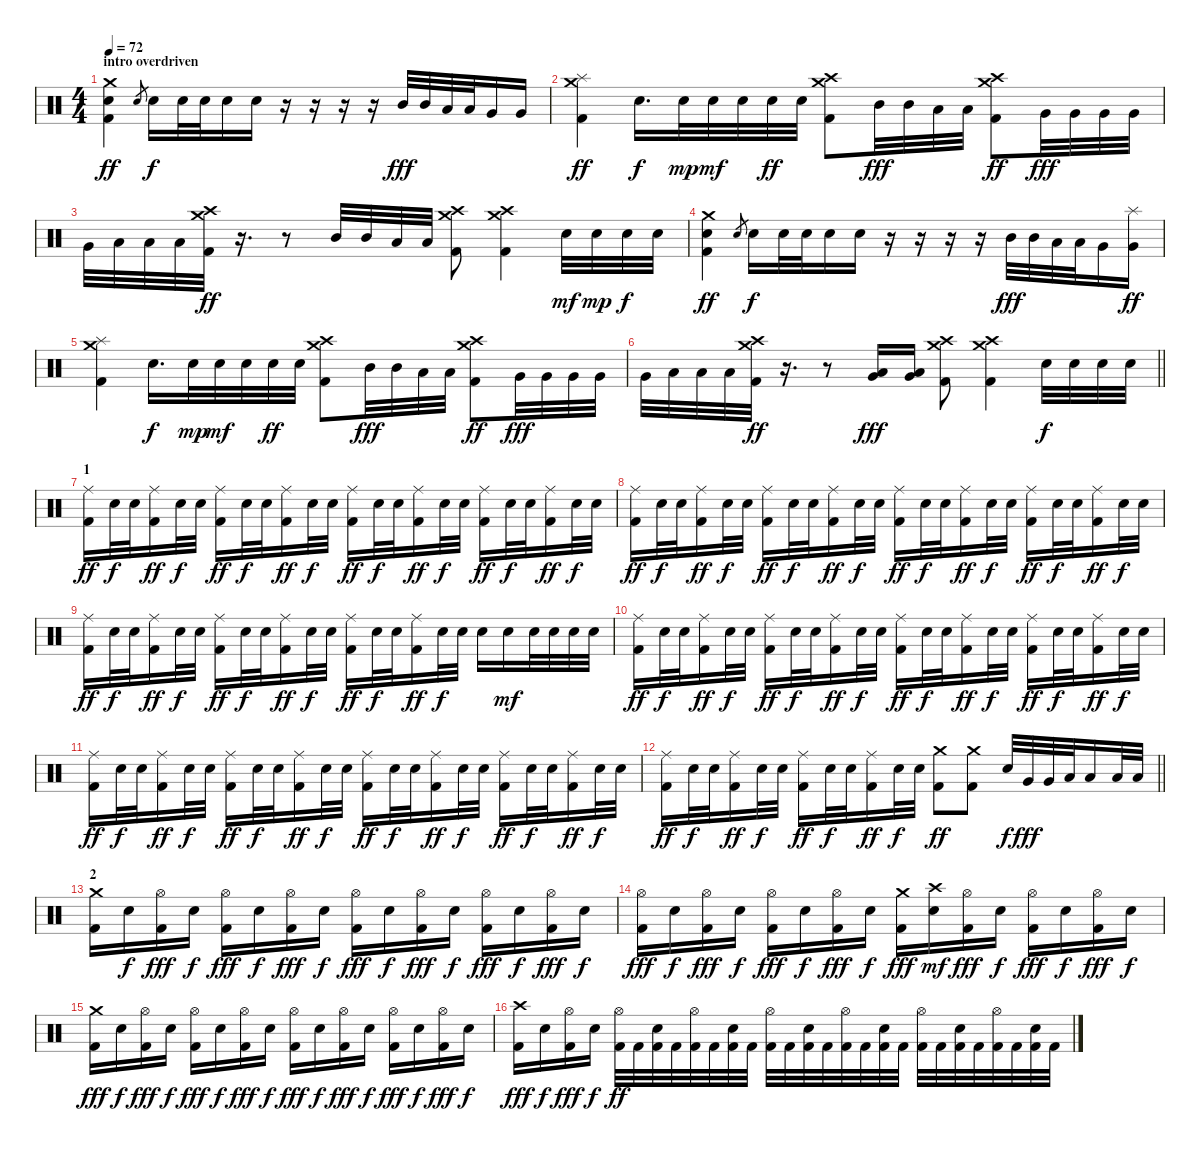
\track "" {instrument percussion}
\staff {score}
\articulation defaults
\ts (4 4)
\section ("" "intro overdriven")
\tempo 72
\clef neutral
\ks c
("Crash medium (hit)" "Snare (hit) 2" "Kick (hit) 2").4{dy ff} "Snare (hit) 2".8{gr} "Snare (hit) 2".16{dy f} "Snare (hit) 2".32 "Snare (hit) 2".32 "Snare (hit) 2".16 "Snare (hit) 2".16 r.16 r.16 r.16 r.16 "Mid Tom (hit)".32{dy fff} "Mid Tom (hit)".32 "Low Tom (hit)".32 "Low Tom (hit)".32 "Very Low Tom (hit)".16 "Very Low Tom (hit)".16 |
("Splash (hit)" "Crash medium (hit)" "Kick (hit) 2").4{dy ff} "Snare (hit) 2".16{d dy f} "Snare (hit) 2".32{dy mp} "Snare (hit) 2".32{dy mf} "Snare (hit) 2".32 "Snare (hit) 2".32{dy ff} "Snare (hit) 2".32 ("Crash medium (hit)" "Crash high (hit)" "Kick (hit) 2").8 "Mid Tom (hit)".32{dy fff} "Mid Tom (hit)".32 "Low Tom (hit)".32 "Low Tom (hit)".32 ("Crash medium (hit)" "Crash high (hit)" "Kick (hit) 2").8{dy ff} "Very Low Tom (hit)".32{dy fff} "Very Low Tom (hit)".32 "Very Low Tom (hit)".32 "Very Low Tom (hit)".32 |
"Very Low Tom (hit)".32 "Low Tom (hit)".32 "Low Tom (hit)".32 "Low Tom (hit)".32 ("Crash medium (hit)" "Crash high (hit)" "Kick (hit) 2").32{dy ff} r.16{d} r.8 "Mid Tom (hit)".32 "Mid Tom (hit)".32 "Low Tom (hit)".32 "Low Tom (hit)".32 ("Crash medium (hit)" "Crash high (hit)" "Kick (hit) 2").8 ("Crash medium (hit)" "Crash high (hit)" "Kick (hit) 2").4 "Snare (hit) 2".32{dy mf} "Snare (hit) 2".32{dy mp} "Snare (hit) 2".32{dy f} "Snare (hit) 2".32 |
("Crash medium (hit)" "Electric Snare (hit)" "Kick (hit) 2").4{dy ff} "Snare (hit) 2".8{gr} "Snare (hit) 2".16{dy f} "Snare (hit) 2".32 "Snare (hit) 2".32 "Snare (hit) 2".16 "Snare (hit) 2".16 r.16 r.16 r.16 r.16 "Mid Tom (hit)".32{dy fff} "Mid Tom (hit)".32 "Low Tom (hit)".32 "Low Tom (hit)".32 "Very Low Tom (hit)".16 ("Splash (hit)" "Very Low Tom (hit)").16{dy ff} |
("Splash (hit)" "Crash medium (hit)" "Kick (hit) 2").4 "Snare (hit) 2".16{d dy f} "Snare (hit) 2".32{dy mp} "Snare (hit) 2".32{dy mf} "Snare (hit) 2".32 "Snare (hit) 2".32{dy ff} "Snare (hit) 2".32 ("Crash medium (hit)" "Crash high (hit)" "Kick (hit) 2").8 "Mid Tom (hit)".32{dy fff} "Mid Tom (hit)".32 "Low Tom (hit)".32 "Low Tom (hit)".32 ("Crash medium (hit)" "Crash high (hit)" "Kick (hit) 2").8{dy ff} "Very Low Tom (hit)".32{dy fff} "Very Low Tom (hit)".32 "Very Low Tom (hit)".32 "Very Low Tom (hit)".32 |
\barLineRight lightlight "Very Low Tom (hit)".32 "Low Tom (hit)".32 "Low Tom (hit)".32 "Low Tom (hit)".32
("Crash medium (hit)" "Crash high (hit)" "Kick (hit) 2").32{dy ff} r.16{d} r.8 ("Very Low Tom (hit)" "Low Floor Tom (hit)").16{dy fff} ("Very Low Tom (hit)" "Low Floor Tom (hit)").16 ("Crash medium (hit)" "Crash high (hit)" "Kick (hit) 2").8 ("Crash medium (hit)" "Crash high (hit)" "Kick (hit) 2").4 "Snare (hit) 2".32{dy f} "Snare (hit) 2".32 "Snare (hit) 2".32 "Snare (hit) 2".32 |
\section ("" "1")
("Ride (middle)" "Kick (hit) 2").16{dy ff} "Snare (hit) 2".32{dy f} "Snare (hit) 2".32 ("Ride (middle)" "Kick (hit) 2").16{dy ff} "Snare (hit) 2".32{dy f} "Snare (hit) 2".32 ("Ride (middle)" "Kick (hit) 2").16{dy ff} "Snare (hit) 2".32{dy f} "Snare (hit) 2".32 ("Ride (middle)" "Kick (hit) 2").16{dy ff} "Snare (hit) 2".32{dy f} "Snare (hit) 2".32 ("Ride (middle)" "Kick (hit) 2").16{dy ff} "Snare (hit) 2".32{dy f} "Snare (hit) 2".32 ("Ride (middle)" "Kick (hit) 2").16{dy ff} "Snare (hit) 2".32{dy f} "Snare (hit) 2".32 ("Ride (middle)" "Kick (hit) 2").16{dy ff} "Snare (hit) 2".32{dy f} "Snare (hit) 2".32 ("Ride (middle)" "Kick (hit) 2").16{dy ff} "Snare (hit) 2".32{dy f} "Snare (hit) 2".32 |
("Ride (middle)" "Kick (hit) 2").16{dy ff} "Snare (hit) 2".32{dy f} "Snare (hit) 2".32 ("Ride (middle)" "Kick (hit) 2").16{dy ff} "Snare (hit) 2".32{dy f} "Snare (hit) 2".32 ("Ride (middle)" "Kick (hit) 2").16{dy ff} "Snare (hit) 2".32{dy f} "Snare (hit) 2".32 ("Ride (middle)" "Kick (hit) 2").16{dy ff} "Snare (hit) 2".32{dy f} "Snare (hit) 2".32 ("Ride (middle)" "Kick (hit) 2").16{dy ff} "Snare (hit) 2".32{dy f} "Snare (hit) 2".32 ("Ride (middle)" "Kick (hit) 2").16{dy ff} "Snare (hit) 2".32{dy f} "Snare (hit) 2".32 ("Ride (middle)" "Kick (hit) 2").16{dy ff} "Snare (hit) 2".32{dy f} "Snare (hit) 2".32 ("Ride (middle)" "Kick (hit) 2").16{dy ff} "Snare (hit) 2".32{dy f} "Snare (hit) 2".32 |
("Ride (middle)" "Kick (hit) 2").16{dy ff} "Snare (hit) 2".32{dy f} "Snare (hit) 2".32 ("Ride (middle)" "Kick (hit) 2").16{dy ff} "Snare (hit) 2".32{dy f} "Snare (hit) 2".32 ("Ride (middle)" "Kick (hit) 2").16{dy ff} "Snare (hit) 2".32{dy f} "Snare (hit) 2".32 ("Ride (middle)" "Kick (hit) 2").16{dy ff} "Snare (hit) 2".32{dy f} "Snare (hit) 2".32 ("Ride (middle)" "Kick (hit) 2").16{dy ff} "Snare (hit) 2".32{dy f} "Snare (hit) 2".32 ("Ride (middle)" "Kick (hit) 2").16{dy ff} "Snare (hit) 2".32{dy f} "Snare (hit) 2".32 "Snare (hit) 2".16 "Snare (hit) 2".16{dy mf} "Snare (hit) 2".32 "Snare (hit) 2".32 "Snare (hit) 2".32 "Snare (hit) 2".32 |
("Ride (middle)" "Kick (hit) 2").16{dy ff} "Snare (hit) 2".32{dy f} "Snare (hit) 2".32 ("Ride (middle)" "Kick (hit) 2").16{dy ff} "Snare (hit) 2".32{dy f} "Snare (hit) 2".32 ("Ride (middle)" "Kick (hit) 2").16{dy ff} "Snare (hit) 2".32{dy f} "Snare (hit) 2".32 ("Ride (middle)" "Kick (hit) 2").16{dy ff} "Snare (hit) 2".32{dy f} "Snare (hit) 2".32 ("Ride (middle)" "Kick (hit) 2").16{dy ff} "Snare (hit) 2".32{dy f} "Snare (hit) 2".32 ("Ride (middle)" "Kick (hit) 2").16{dy ff} "Snare (hit) 2".32{dy f} "Snare (hit) 2".32 ("Ride (middle)" "Kick (hit) 2").16{dy ff} "Snare (hit) 2".32{dy f} "Snare (hit) 2".32 ("Ride (middle)" "Kick (hit) 2").16{dy ff} "Snare (hit) 2".32{dy f} "Snare (hit) 2".32 |
("Ride (middle)" "Kick (hit) 2").16{dy ff} "Snare (hit) 2".32{dy f} "Snare (hit) 2".32 ("Ride (middle)" "Kick (hit) 2").16{dy ff} "Snare (hit) 2".32{dy f} "Snare (hit) 2".32 ("Ride (middle)" "Kick (hit) 2").16{dy ff} "Snare (hit) 2".32{dy f} "Snare (hit) 2".32 ("Ride (middle)" "Kick (hit) 2").16{dy ff} "Snare (hit) 2".32{dy f} "Snare (hit) 2".32 ("Ride (middle)" "Kick (hit) 2").16{dy ff} "Snare (hit) 2".32{dy f} "Snare (hit) 2".32 ("Ride (middle)" "Kick (hit) 2").16{dy ff} "Snare (hit) 2".32{dy f} "Snare (hit) 2".32 ("Ride (middle)" "Kick (hit) 2").16{dy ff} "Snare (hit) 2".32{dy f} "Snare (hit) 2".32 ("Ride (middle)" "Kick (hit) 2").16{dy ff} "Snare (hit) 2".32{dy f} "Snare (hit) 2".32 |
\barLineRight lightlight
("Ride (middle)" "Kick (hit) 2").16{dy ff} "Snare (hit) 2".32{dy f} "Snare (hit) 2".32 ("Ride (middle)" "Kick (hit) 2").16{dy ff} "Snare (hit) 2".32{dy f} "Snare (hit) 2".32 ("Ride (middle)" "Kick (hit) 2").16{dy ff} "Snare (hit) 2".32{dy f} "Snare (hit) 2".32 ("Ride (middle)" "Kick (hit) 2").16{dy ff} "Snare (hit) 2".32{dy f} "Snare (hit) 2".32 ("Crash medium (hit)" "Kick (hit) 2").8{dy ff} ("Crash medium (hit)" "Kick (hit) 2").8 "Snare (hit) 2".32{dy f} "Very Low Tom (hit)".32{dy fff} "Very Low Tom (hit)".32 "Low Floor Tom (hit)".32 "Low Tom (hit)".16 "Low Tom (hit)".32 "Low Tom (hit)".32 |
\section ("" "2")
("Crash medium (hit)" "Kick (hit) 2").16 "Snare (hit) 2".16{dy f} ("Hi-Hat (open)" "Kick (hit) 2").16{dy fff} "Snare (hit) 2".16{dy f} ("Hi-Hat (open)" "Kick (hit) 2").16{dy fff} "Snare (hit) 2".16{dy f} ("Hi-Hat (open)" "Kick (hit) 2").16{dy fff} "Snare (hit) 2".16{dy f} ("Hi-Hat (open)" "Kick (hit) 2").16{dy fff} "Snare (hit) 2".16{dy f} ("Hi-Hat (open)" "Kick (hit) 2").16{dy fff} "Snare (hit) 2".16{dy f} ("Hi-Hat (open)" "Kick (hit) 2").16{dy fff} "Snare (hit) 2".16{dy f} ("Hi-Hat (open)" "Kick (hit) 2").16{dy fff} "Snare (hit) 2".16{dy f} |
("Hi-Hat (open)" "Kick (hit) 2").16{dy fff} "Snare (hit) 2".16{dy f} ("Hi-Hat (open)" "Kick (hit) 2").16{dy fff} "Snare (hit) 2".16{dy f} ("Hi-Hat (open)" "Kick (hit) 2").16{dy fff} "Snare (hit) 2".16{dy f} ("Hi-Hat (open)" "Kick (hit) 2").16{dy fff} "Snare (hit) 2".16{dy f} ("Crash medium (hit)" "Kick (hit) 2").16{dy fff} ("Crash high (hit)" "Snare (hit) 2").16{dy mf} ("Hi-Hat (open)" "Kick (hit) 2").16{dy fff} "Snare (hit) 2".16{dy f} ("Hi-Hat (open)" "Kick (hit) 2").16{dy fff} "Snare (hit) 2".16{dy f} ("Hi-Hat (open)" "Kick (hit) 2").16{dy fff} "Snare (hit) 2".16{dy f} |
("Crash medium (hit)" "Kick (hit) 2").16{dy fff} "Snare (hit) 2".16{dy f} ("Hi-Hat (open)" "Kick (hit) 2").16{dy fff} "Snare (hit) 2".16{dy f} ("Hi-Hat (open)" "Kick (hit) 2").16{dy fff} "Snare (hit) 2".16{dy f} ("Hi-Hat (open)" "Kick (hit) 2").16{dy fff} "Snare (hit) 2".16{dy f} ("Hi-Hat (open)" "Kick (hit) 2").16{dy fff} "Snare (hit) 2".16{dy f} ("Hi-Hat (open)" "Kick (hit) 2").16{dy fff} "Snare (hit) 2".16{dy f} ("Hi-Hat (open)" "Kick (hit) 2").16{dy fff} "Snare (hit) 2".16{dy f} ("Hi-Hat (open)" "Kick (hit) 2").16{dy fff} "Snare (hit) 2".16{dy f} |
("Crash high (hit)" "Kick (hit) 2").16{dy fff} "Snare (hit) 2".16{dy f} ("Hi-Hat (open)" "Kick (hit) 2").16{dy fff} "Snare (hit) 2".16{dy f} ("Hi-Hat (open)" "Kick (hit) 2").32{dy ff} "Kick (hit) 2".32 ("Snare (hit) 2" "Kick (hit) 2").32 "Kick (hit) 2".32 ("Hi-Hat (open)" "Kick (hit) 2").32 "Kick (hit) 2".32 ("Snare (hit) 2" "Kick (hit) 2").32 "Kick (hit) 2".32 ("Hi-Hat (open)" "Kick (hit) 2").32 "Kick (hit) 2".32 ("Snare (hit) 2" "Kick (hit) 2").32 "Kick (hit) 2".32 ("Hi-Hat (open)" "Kick (hit) 2").32 "Kick (hit) 2".32 ("Snare (hit) 2" "Kick (hit) 2").32 "Kick (hit) 2".32 ("Hi-Hat (open)" "Kick (hit) 2").32 "Kick (hit) 2".32 ("Snare (hit) 2" "Kick (hit) 2").32 "Kick (hit) 2".32 ("Hi-Hat (open)" "Kick (hit) 2").32 "Kick (hit) 2".32 ("Snare (hit) 2" "Kick (hit) 2").32 "Kick (hit) 2".32
